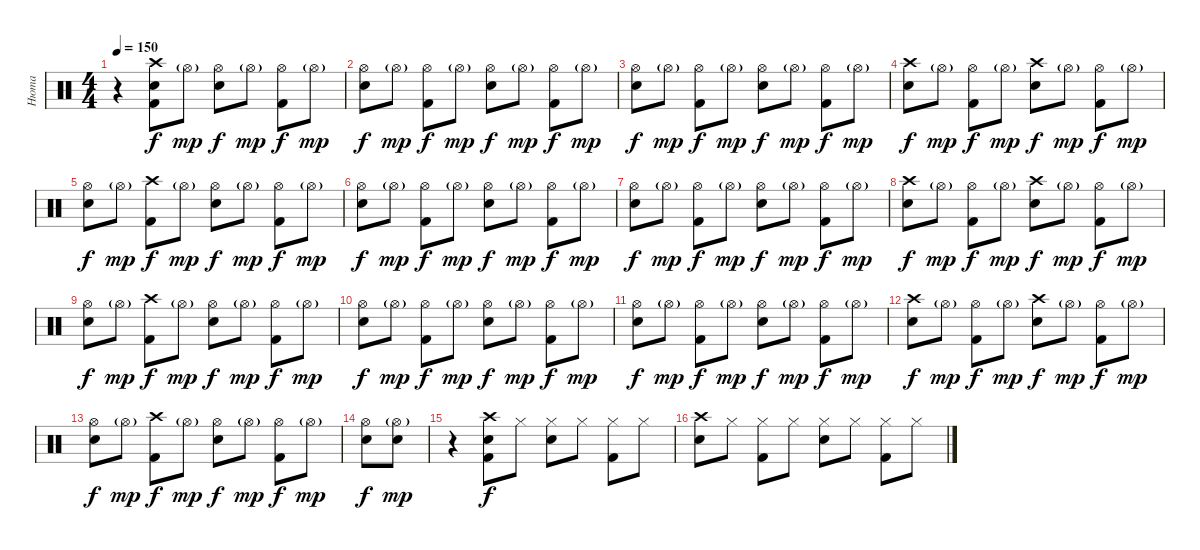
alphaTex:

\track ("Нюта" "Нюта") {instrument percussion}
\staff {score}
\articulation defaults
\ts (4 4)
\tempo 150
\clef neutral
\ks c
r.4{dy f} ("Snare (hit)" "Kick (hit) 2" "Crash high (hit)").8 "Hi-Hat (open)"{g}.8{dy mp} ("Hi-Hat (open)" "Electric Snare (hit)").8{dy f} "Hi-Hat (open)"{g}.8{dy mp} ("Hi-Hat (open)" "Kick (hit) 2").8{dy f} "Hi-Hat (open)"{g}.8{dy mp} |
("Hi-Hat (open)" "Electric Snare (hit)").8{dy f} "Hi-Hat (open)"{g}.8{dy mp} ("Hi-Hat (open)" "Kick (hit) 2").8{dy f} "Hi-Hat (open)"{g}.8{dy mp} ("Hi-Hat (open)" "Electric Snare (hit)").8{dy f} "Hi-Hat (open)"{g}.8{dy mp} ("Hi-Hat (open)" "Kick (hit) 2").8{dy f} "Hi-Hat (open)"{g}.8{dy mp} |
("Hi-Hat (open)" "Electric Snare (hit)").8{dy f} "Hi-Hat (open)"{g}.8{dy mp} ("Hi-Hat (open)" "Kick (hit) 2").8{dy f} "Hi-Hat (open)"{g}.8{dy mp} ("Hi-Hat (open)" "Electric Snare (hit)").8{dy f} "Hi-Hat (open)"{g}.8{dy mp} ("Hi-Hat (open)" "Kick (hit) 2").8{dy f} "Hi-Hat (open)"{g}.8{dy mp} |
("Crash high (hit)" "Electric Snare (hit)").8{dy f} "Hi-Hat (open)"{g}.8{dy mp} ("Hi-Hat (open)" "Kick (hit) 2").8{dy f} "Hi-Hat (open)"{g}.8{dy mp} ("Crash high (hit)" "Electric Snare (hit)").8{dy f} "Hi-Hat (open)"{g}.8{dy mp} ("Hi-Hat (open)" "Kick (hit) 2").8{dy f} "Hi-Hat (open)"{g}.8{dy mp} |
("Hi-Hat (open)" "Electric Snare (hit)").8{dy f} "Hi-Hat (open)"{g}.8{dy mp} ("Crash high (hit)" "Kick (hit) 2").8{dy f} "Hi-Hat (open)"{g}.8{dy mp} ("Hi-Hat (open)" "Electric Snare (hit)").8{dy f} "Hi-Hat (open)"{g}.8{dy mp} ("Hi-Hat (open)" "Kick (hit) 2").8{dy f} "Hi-Hat (open)"{g}.8{dy mp} |
("Hi-Hat (open)" "Electric Snare (hit)").8{dy f} "Hi-Hat (open)"{g}.8{dy mp} ("Hi-Hat (open)" "Kick (hit) 2").8{dy f} "Hi-Hat (open)"{g}.8{dy mp} ("Hi-Hat (open)" "Electric Snare (hit)").8{dy f} "Hi-Hat (open)"{g}.8{dy mp} ("Hi-Hat (open)" "Kick (hit) 2").8{dy f} "Hi-Hat (open)"{g}.8{dy mp} |
("Hi-Hat (open)" "Electric Snare (hit)").8{dy f} "Hi-Hat (open)"{g}.8{dy mp} ("Hi-Hat (open)" "Kick (hit) 2").8{dy f} "Hi-Hat (open)"{g}.8{dy mp} ("Hi-Hat (open)" "Electric Snare (hit)").8{dy f} "Hi-Hat (open)"{g}.8{dy mp} ("Hi-Hat (open)" "Kick (hit) 2").8{dy f} "Hi-Hat (open)"{g}.8{dy mp} |
("Crash high (hit)" "Electric Snare (hit)").8{dy f} "Hi-Hat (open)"{g}.8{dy mp} ("Hi-Hat (open)" "Kick (hit) 2").8{dy f} "Hi-Hat (open)"{g}.8{dy mp} ("Crash high (hit)" "Electric Snare (hit)").8{dy f} "Hi-Hat (open)"{g}.8{dy mp} ("Hi-Hat (open)" "Kick (hit) 2").8{dy f} "Hi-Hat (open)"{g}.8{dy mp} |
("Hi-Hat (open)" "Electric Snare (hit)").8{dy f} "Hi-Hat (open)"{g}.8{dy mp} ("Crash high (hit)" "Kick (hit) 2").8{dy f} "Hi-Hat (open)"{g}.8{dy mp} ("Hi-Hat (open)" "Electric Snare (hit)").8{dy f} "Hi-Hat (open)"{g}.8{dy mp} ("Hi-Hat (open)" "Kick (hit) 2").8{dy f} "Hi-Hat (open)"{g}.8{dy mp} |
("Hi-Hat (open)" "Electric Snare (hit)").8{dy f} "Hi-Hat (open)"{g}.8{dy mp} ("Hi-Hat (open)" "Kick (hit) 2").8{dy f} "Hi-Hat (open)"{g}.8{dy mp} ("Hi-Hat (open)" "Electric Snare (hit)").8{dy f} "Hi-Hat (open)"{g}.8{dy mp} ("Hi-Hat (open)" "Kick (hit) 2").8{dy f} "Hi-Hat (open)"{g}.8{dy mp} |
("Hi-Hat (open)" "Electric Snare (hit)").8{dy f} "Hi-Hat (open)"{g}.8{dy mp} ("Hi-Hat (open)" "Kick (hit) 2").8{dy f} "Hi-Hat (open)"{g}.8{dy mp} ("Hi-Hat (open)" "Electric Snare (hit)").8{dy f} "Hi-Hat (open)"{g}.8{dy mp} ("Hi-Hat (open)" "Kick (hit) 2").8{dy f} "Hi-Hat (open)"{g}.8{dy mp} |
("Crash high (hit)" "Electric Snare (hit)").8{dy f} "Hi-Hat (open)"{g}.8{dy mp} ("Hi-Hat (open)" "Kick (hit) 2").8{dy f} "Hi-Hat (open)"{g}.8{dy mp} ("Crash high (hit)" "Electric Snare (hit)").8{dy f} "Hi-Hat (open)"{g}.8{dy mp} ("Hi-Hat (open)" "Kick (hit) 2").8{dy f} "Hi-Hat (open)"{g}.8{dy mp} |
("Hi-Hat (open)" "Electric Snare (hit)").8{dy f} "Hi-Hat (open)"{g}.8{dy mp} ("Crash high (hit)" "Kick (hit) 2").8{dy f} "Hi-Hat (open)"{g}.8{dy mp} ("Hi-Hat (open)" "Electric Snare (hit)").8{dy f} "Hi-Hat (open)"{g}.8{dy mp} ("Hi-Hat (open)" "Kick (hit) 2").8{dy f} "Hi-Hat (open)"{g}.8{dy mp} |
("Hi-Hat (open)" "Electric Snare (hit)").8{dy f} ("Hi-Hat (open)"{g} "Snare (hit)").8{dy mp} |
r.4 ("Snare (hit)" "Kick (hit) 2" "Crash high (hit)").8{dy f} "Hi-Hat (closed)".8 ("Hi-Hat (closed)" "Electric Snare (hit)").8 "Hi-Hat (closed)".8 ("Hi-Hat (closed)" "Kick (hit) 2").8 "Hi-Hat (closed)".8 |
("Crash high (hit)" "Electric Snare (hit)").8 "Hi-Hat (closed)".8 ("Hi-Hat (closed)" "Kick (hit) 2").8 "Hi-Hat (closed)".8 ("Hi-Hat (closed)" "Electric Snare (hit)").8 "Hi-Hat (closed)".8 ("Hi-Hat (closed)" "Kick (hit) 2").8 "Hi-Hat (closed)".8
